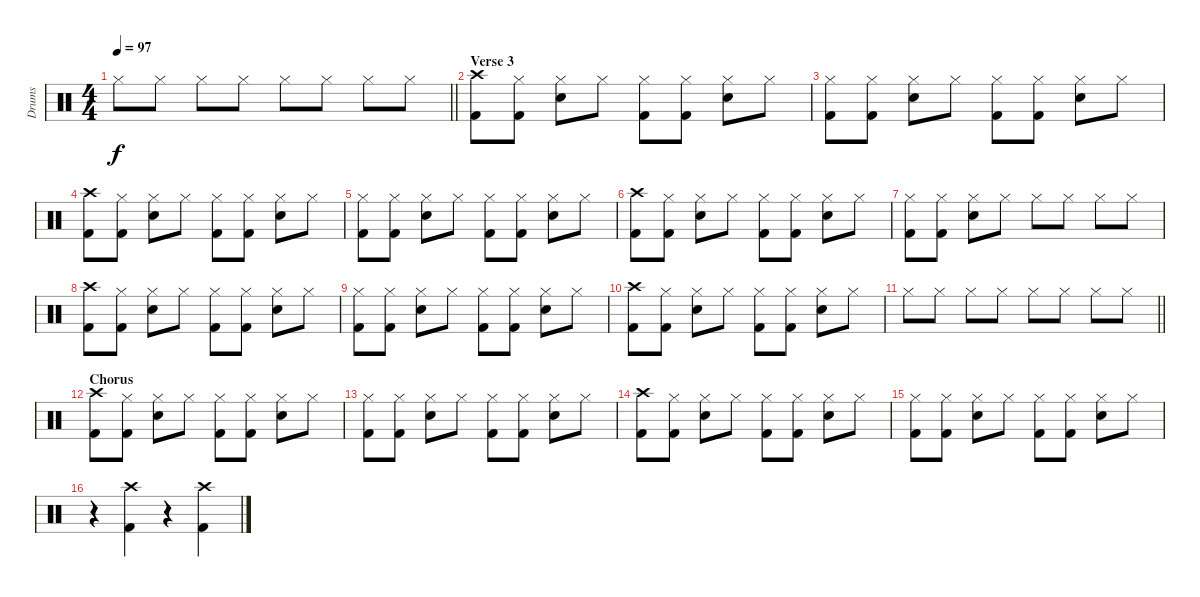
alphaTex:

\track ("Drums" "Drums") {instrument percussion}
\staff {score}
\articulation defaults
\ts (4 4)
\tempo 97
\clef neutral
\barLineRight lightlight
\ks c "Hi-Hat (closed)".8{dy f} "Hi-Hat (closed)".8 "Hi-Hat (closed)".8 "Hi-Hat (closed)".8 "Hi-Hat (closed)".8 "Hi-Hat (closed)".8 "Hi-Hat (closed)".8 "Hi-Hat (closed)".8
|
\section ("" "Verse 3")
("Crash high (hit)" "Kick (hit) 2").8 ("Hi-Hat (closed)" "Kick (hit) 2").8 ("Hi-Hat (closed)" "Electric Snare (hit)").8 "Hi-Hat (closed)".8 ("Hi-Hat (closed)" "Kick (hit) 2").8 ("Hi-Hat (closed)" "Kick (hit) 2").8 ("Hi-Hat (closed)" "Electric Snare (hit)").8 "Hi-Hat (closed)".8 |
("Hi-Hat (closed)" "Kick (hit) 2").8 ("Hi-Hat (closed)" "Kick (hit) 2").8 ("Hi-Hat (closed)" "Electric Snare (hit)").8 "Hi-Hat (closed)".8 ("Hi-Hat (closed)" "Kick (hit) 2").8 ("Hi-Hat (closed)" "Kick (hit) 2").8 ("Hi-Hat (closed)" "Electric Snare (hit)").8 "Hi-Hat (closed)".8 |
("Crash high (hit)" "Kick (hit) 2").8 ("Hi-Hat (closed)" "Kick (hit) 2").8 ("Hi-Hat (closed)" "Electric Snare (hit)").8 "Hi-Hat (closed)".8 ("Hi-Hat (closed)" "Kick (hit) 2").8 ("Hi-Hat (closed)" "Kick (hit) 2").8 ("Hi-Hat (closed)" "Electric Snare (hit)").8 "Hi-Hat (closed)".8 |
("Hi-Hat (closed)" "Kick (hit) 2").8 ("Hi-Hat (closed)" "Kick (hit) 2").8 ("Hi-Hat (closed)" "Electric Snare (hit)").8 "Hi-Hat (closed)".8 ("Hi-Hat (closed)" "Kick (hit) 2").8 ("Hi-Hat (closed)" "Kick (hit) 2").8 ("Hi-Hat (closed)" "Electric Snare (hit)").8 "Hi-Hat (closed)".8 |
("Crash high (hit)" "Kick (hit) 2").8 ("Hi-Hat (closed)" "Kick (hit) 2").8 ("Hi-Hat (closed)" "Electric Snare (hit)").8 "Hi-Hat (closed)".8 ("Hi-Hat (closed)" "Kick (hit) 2").8 ("Hi-Hat (closed)" "Kick (hit) 2").8 ("Hi-Hat (closed)" "Electric Snare (hit)").8 "Hi-Hat (closed)".8 |
("Hi-Hat (closed)" "Kick (hit) 2").8 ("Hi-Hat (closed)" "Kick (hit) 2").8 ("Hi-Hat (closed)" "Electric Snare (hit)").8 "Hi-Hat (closed)".8 "Hi-Hat (closed)".8 "Hi-Hat (closed)".8 "Hi-Hat (closed)".8 "Hi-Hat (closed)".8 |
("Crash high (hit)" "Kick (hit) 2").8 ("Hi-Hat (closed)" "Kick (hit) 2").8 ("Hi-Hat (closed)" "Electric Snare (hit)").8 "Hi-Hat (closed)".8 ("Hi-Hat (closed)" "Kick (hit) 2").8 ("Hi-Hat (closed)" "Kick (hit) 2").8 ("Hi-Hat (closed)" "Electric Snare (hit)").8 "Hi-Hat (closed)".8 |
("Hi-Hat (closed)" "Kick (hit) 2").8 ("Hi-Hat (closed)" "Kick (hit) 2").8 ("Hi-Hat (closed)" "Electric Snare (hit)").8 "Hi-Hat (closed)".8 ("Hi-Hat (closed)" "Kick (hit) 2").8 ("Hi-Hat (closed)" "Kick (hit) 2").8 ("Hi-Hat (closed)" "Electric Snare (hit)").8 "Hi-Hat (closed)".8 |
("Crash high (hit)" "Kick (hit) 2").8 ("Hi-Hat (closed)" "Kick (hit) 2").8 ("Hi-Hat (closed)" "Electric Snare (hit)").8 "Hi-Hat (closed)".8 ("Hi-Hat (closed)" "Kick (hit) 2").8 ("Hi-Hat (closed)" "Kick (hit) 2").8 ("Hi-Hat (closed)" "Electric Snare (hit)").8 "Hi-Hat (closed)".8 |
\barLineRight lightlight "Hi-Hat (closed)".8 "Hi-Hat (closed)".8 "Hi-Hat (closed)".8 "Hi-Hat (closed)".8 "Hi-Hat (closed)".8 "Hi-Hat (closed)".8 "Hi-Hat (closed)".8 "Hi-Hat (closed)".8
|
\section ("" "Chorus")
("Crash high (hit)" "Kick (hit) 2").8 ("Hi-Hat (closed)" "Kick (hit) 2").8 ("Hi-Hat (closed)" "Electric Snare (hit)").8 "Hi-Hat (closed)".8 ("Hi-Hat (closed)" "Kick (hit) 2").8 ("Hi-Hat (closed)" "Kick (hit) 2").8 ("Hi-Hat (closed)" "Electric Snare (hit)").8 "Hi-Hat (closed)".8 |
("Hi-Hat (closed)" "Kick (hit) 2").8 ("Hi-Hat (closed)" "Kick (hit) 2").8 ("Hi-Hat (closed)" "Electric Snare (hit)").8 "Hi-Hat (closed)".8 ("Hi-Hat (closed)" "Kick (hit) 2").8 ("Hi-Hat (closed)" "Kick (hit) 2").8 ("Hi-Hat (closed)" "Electric Snare (hit)").8 "Hi-Hat (closed)".8 |
("Crash high (hit)" "Kick (hit) 2").8 ("Hi-Hat (closed)" "Kick (hit) 2").8 ("Hi-Hat (closed)" "Electric Snare (hit)").8 "Hi-Hat (closed)".8 ("Hi-Hat (closed)" "Kick (hit) 2").8 ("Hi-Hat (closed)" "Kick (hit) 2").8 ("Hi-Hat (closed)" "Electric Snare (hit)").8 "Hi-Hat (closed)".8 |
("Hi-Hat (closed)" "Kick (hit) 2").8 ("Hi-Hat (closed)" "Kick (hit) 2").8 ("Hi-Hat (closed)" "Electric Snare (hit)").8 "Hi-Hat (closed)".8 ("Hi-Hat (closed)" "Kick (hit) 2").8 ("Hi-Hat (closed)" "Kick (hit) 2").8 ("Hi-Hat (closed)" "Electric Snare (hit)").8 "Hi-Hat (closed)".8 |
r.4 ("Crash high (hit)" "Kick (hit) 2").4 r.4 ("Crash high (hit)" "Kick (hit) 2").4
